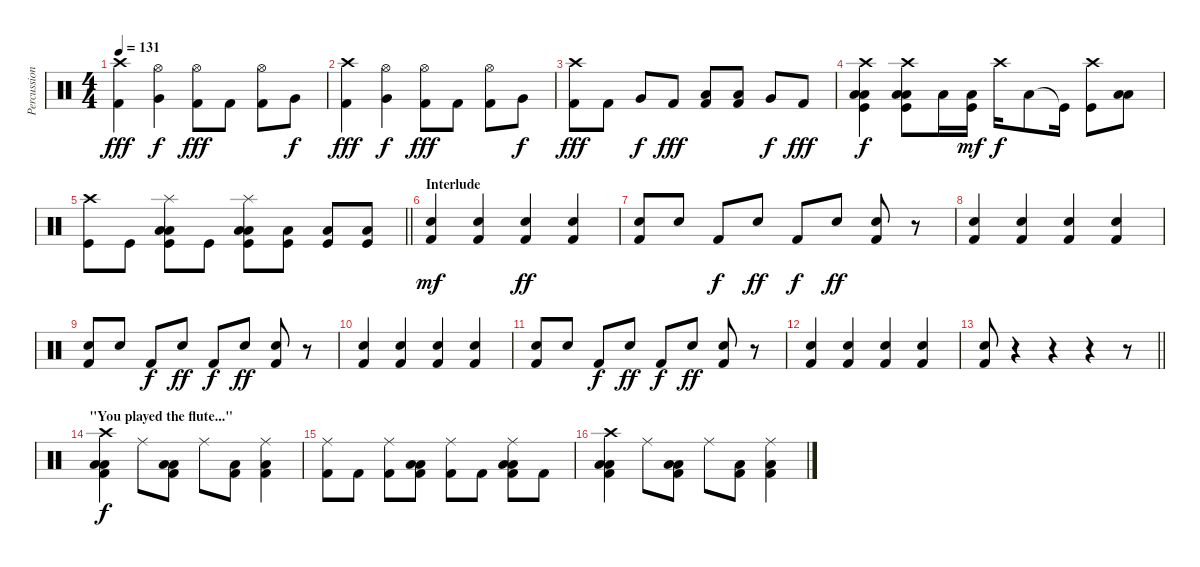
\track ("Percussion" "Percussion") {instrument percussion}
\staff {score}
\articulation defaults
\ts (4 4)
\tempo 131
\clef neutral
\ks c
("Crash high (hit)" "Kick (hit) 2").4{dy fff} ("Hi-Hat (open)" "Very Low Tom (hit)").4{dy f} ("Hi-Hat (open)" "Kick (hit) 2").8{dy fff} "Kick (hit) 2".8 ("Hi-Hat (open)" "Kick (hit) 2").8 "Very Low Tom (hit)".8{dy f} |
("Crash high (hit)" "Kick (hit) 2").4{dy fff} ("Hi-Hat (open)" "Very Low Tom (hit)").4{dy f} ("Hi-Hat (open)" "Kick (hit) 2").8{dy fff} "Kick (hit) 2".8 ("Hi-Hat (open)" "Kick (hit) 2").8 "Very Low Tom (hit)".8{dy f} |
("Crash high (hit)" "Kick (hit) 2").8{dy fff} "Kick (hit) 2".8 "Very Low Tom (hit)".8{dy f} "Kick (hit) 2".8{dy fff} ("Low Floor Tom (hit)" "Kick (hit) 2").8 ("Low Floor Tom (hit)" "Kick (hit) 2").8 "Very Low Tom (hit)".8{dy f} "Kick (hit) 2".8{dy fff} |
("Crash high (hit)" "Low Tom (hit)" "Low Floor Tom (hit)" "Kick (hit)").4{dy f} ("Crash high (hit)" "Low Tom (hit)" "Low Floor Tom (hit)" "Kick (hit)").8 "Low Tom (hit)".16 ("Low Tom (hit)" "Kick (hit)").16{dy mf} "Crash high (hit)".16{dy f} "Low Tom (hit)".8 "Kick (hit)"{t}.16 ("Crash high (hit)" "Kick (hit)").8 ("Low Tom (hit)" "Low Floor Tom (hit)").8 |
\barLineRight lightlight
("Crash high (hit)" "Kick (hit)").8 "Kick (hit)".8 ("Splash (hit)" "Low Tom (hit)" "Low Floor Tom (hit)" "Kick (hit)").8 "Kick (hit)".8 ("Splash (hit)" "Low Tom (hit)" "Low Floor Tom (hit)" "Kick (hit)").8 ("Low Tom (hit)" "Kick (hit)").8 ("Low Tom (hit)" "Kick (hit)").8 ("Low Floor Tom (hit)" "Kick (hit)").8 |
\section ("" "Interlude")
("Hand Clap (hit)" "Kick (hit) 2").4{dy mf} ("Hand Clap (hit)" "Kick (hit) 2").4 ("Hand Clap (hit)" "Kick (hit) 2").4{dy ff} ("Hand Clap (hit)" "Kick (hit) 2").4 |
("Hand Clap (hit)" "Kick (hit) 2").8 "Hand Clap (hit)".8 "Kick (hit) 2".8{dy f} "Hand Clap (hit)".8{dy ff} "Kick (hit) 2".8{dy f} "Hand Clap (hit)".8{dy ff} ("Hand Clap (hit)" "Kick (hit) 2").8 r.8 |
("Hand Clap (hit)" "Kick (hit) 2").4 ("Hand Clap (hit)" "Kick (hit) 2").4 ("Hand Clap (hit)" "Kick (hit) 2").4 ("Hand Clap (hit)" "Kick (hit) 2").4 |
("Hand Clap (hit)" "Kick (hit) 2").8 "Hand Clap (hit)".8 "Kick (hit) 2".8{dy f} "Hand Clap (hit)".8{dy ff} "Kick (hit) 2".8{dy f} "Hand Clap (hit)".8{dy ff} ("Hand Clap (hit)" "Kick (hit) 2").8 r.8 |
("Hand Clap (hit)" "Kick (hit) 2").4 ("Hand Clap (hit)" "Kick (hit) 2").4 ("Hand Clap (hit)" "Kick (hit) 2").4 ("Hand Clap (hit)" "Kick (hit) 2").4 |
("Hand Clap (hit)" "Kick (hit) 2").8 "Hand Clap (hit)".8 "Kick (hit) 2".8{dy f} "Hand Clap (hit)".8{dy ff} "Kick (hit) 2".8{dy f} "Hand Clap (hit)".8{dy ff} ("Hand Clap (hit)" "Kick (hit) 2").8 r.8 |
("Hand Clap (hit)" "Kick (hit) 2").4 ("Hand Clap (hit)" "Kick (hit) 2").4 ("Hand Clap (hit)" "Kick (hit) 2").4 ("Hand Clap (hit)" "Kick (hit) 2").4 |
\barLineRight lightlight
("Hand Clap (hit)" "Kick (hit) 2").8 r.4 r.4 r.4 r.8 |
\section ("" "\"You played the flute...\"")
("Crash high (hit)" "Low Tom (hit)" "Low Floor Tom (hit)" "Kick (hit) 2").4{dy f} "Ride (middle)".8 ("Low Tom (hit)" "Low Floor Tom (hit)" "Kick (hit) 2").8 "Ride (middle)".8 ("Low Tom (hit)" "Kick (hit) 2").8 ("Ride (middle)" "Low Tom (hit)" "Kick (hit) 2").4 |
("Ride (middle)" "Kick (hit) 2").8 "Kick (hit) 2".8 ("Ride (middle)" "Kick (hit) 2").8 ("Low Tom (hit)" "Low Floor Tom (hit)" "Kick (hit) 2").8 ("Ride (middle)" "Kick (hit) 2").8 "Kick (hit) 2".8 ("Ride (middle)" "Low Tom (hit)" "Low Floor Tom (hit)" "Kick (hit) 2").8 "Kick (hit) 2".8 |
("Crash high (hit)" "Low Tom (hit)" "Low Floor Tom (hit)" "Kick (hit) 2").4 "Ride (middle)".8 ("Low Tom (hit)" "Low Floor Tom (hit)" "Kick (hit) 2").8 "Ride (middle)".8 ("Low Tom (hit)" "Kick (hit) 2").8 ("Ride (middle)" "Low Tom (hit)" "Kick (hit) 2").4
